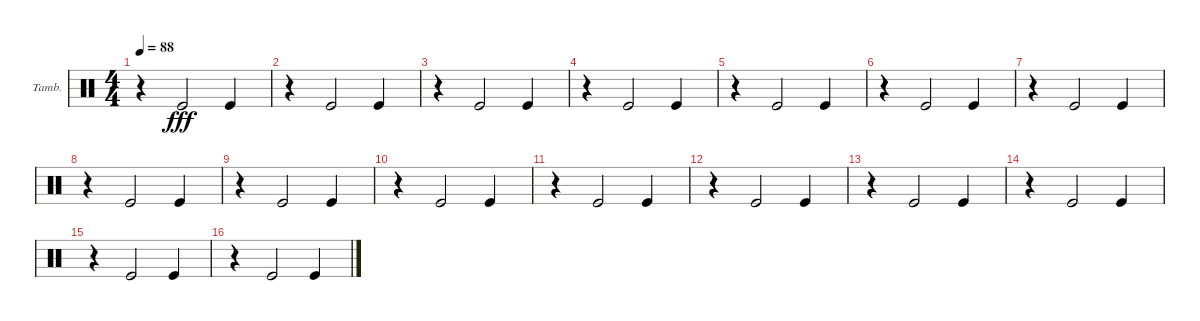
\defaultSystemsLayout 4
\bracketExtendMode groupsimilarinstruments
\firstSystemTrackNameOrientation horizontal
\otherSystemsTrackNameOrientation horizontal
\track ("Helders" "Tamb.") {instrument percussion}
\staff {score}
\articulation defaults
\ts (4 4)
\tempo 88
\clef neutral
\ks c
r.4{dy fff} "Kick (hit)".2 "Kick (hit)".4 |
r.4 "Kick (hit)".2 "Kick (hit)".4 |
r.4 "Kick (hit)".2 "Kick (hit)".4 |
r.4 "Kick (hit)".2 "Kick (hit)".4 |
r.4 "Kick (hit)".2 "Kick (hit)".4 |
r.4 "Kick (hit)".2 "Kick (hit)".4 |
r.4 "Kick (hit)".2 "Kick (hit)".4 |
r.4 "Kick (hit)".2 "Kick (hit)".4 |
r.4 "Kick (hit)".2 "Kick (hit)".4 |
r.4 "Kick (hit)".2 "Kick (hit)".4 |
r.4 "Kick (hit)".2 "Kick (hit)".4 |
r.4 "Kick (hit)".2 "Kick (hit)".4 |
r.4 "Kick (hit)".2 "Kick (hit)".4 |
r.4 "Kick (hit)".2 "Kick (hit)".4 |
r.4 "Kick (hit)".2 "Kick (hit)".4 |
r.4 "Kick (hit)".2 "Kick (hit)".4
